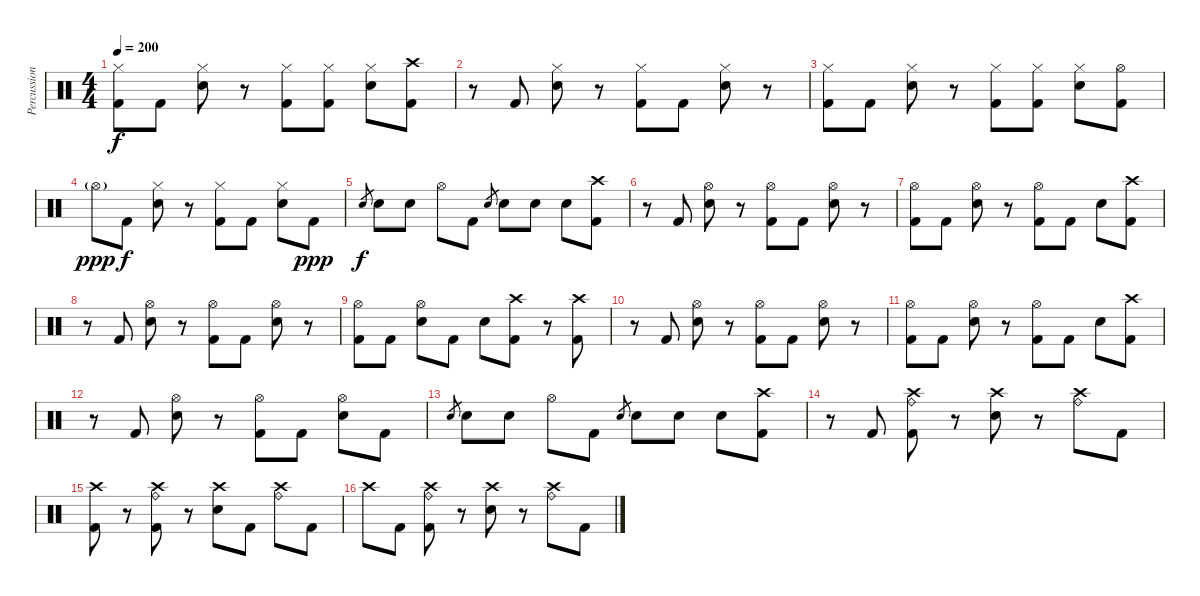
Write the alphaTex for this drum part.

\track ("Percussion" "Percussion") {instrument percussion}
\staff {score}
\articulation defaults
\ts (4 4)
\tempo 200
\clef neutral
\ks c
("Hi-Hat (closed)" "Kick (hit) 2").8{dy f} "Kick (hit) 2".8 ("Hi-Hat (closed)" "Electric Snare (hit)").8 r.8 ("Hi-Hat (closed)" "Kick (hit) 2").8 ("Hi-Hat (closed)" "Kick (hit) 2").8 ("Hi-Hat (closed)" "Electric Snare (hit)").8 ("Crash high (hit)" "Kick (hit) 2").8 |
r.8 "Kick (hit) 2".8 ("Hi-Hat (closed)" "Electric Snare (hit)").8 r.8 ("Hi-Hat (closed)" "Kick (hit) 2").8 "Kick (hit) 2".8 ("Hi-Hat (closed)" "Electric Snare (hit)").8 r.8 |
("Hi-Hat (closed)" "Kick (hit) 2").8 "Kick (hit) 2".8 ("Hi-Hat (closed)" "Electric Snare (hit)").8 r.8 ("Hi-Hat (closed)" "Kick (hit) 2").8 ("Hi-Hat (closed)" "Kick (hit) 2").8 ("Hi-Hat (closed)" "Electric Snare (hit)").8 ("Hi-Hat (open)" "Kick (hit) 2").8 |
"Hi-Hat (open)"{g}.8{dy ppp volume 0} "Kick (hit) 2".8{dy f volume 13} ("Hi-Hat (closed)" "Electric Snare (hit)").8 r.8 ("Hi-Hat (closed)" "Kick (hit) 2").8 "Kick (hit) 2".8 ("Hi-Hat (closed)" "Electric Snare (hit)").8 "Kick (hit) 2".8{dy ppp} |
"Electric Snare (hit)".8{gr dy f} "Electric Snare (hit)".8 "Electric Snare (hit)".8 "Hi-Hat (open)".8 "Kick (hit) 2".8 "Electric Snare (hit)".8{gr} "Electric Snare (hit)".8 "Electric Snare (hit)".8 "Electric Snare (hit)".8 ("Crash high (hit)" "Kick (hit) 2").8 |
r.8 "Kick (hit) 2".8 ("Hi-Hat (open)" "Electric Snare (hit)").8 r.8 ("Hi-Hat (open)" "Kick (hit) 2").8 "Kick (hit) 2".8 ("Hi-Hat (open)" "Electric Snare (hit)").8 r.8 |
("Hi-Hat (open)" "Kick (hit) 2").8 "Kick (hit) 2".8 ("Hi-Hat (open)" "Electric Snare (hit)").8 r.8 ("Hi-Hat (open)" "Kick (hit) 2").8 "Kick (hit) 2".8 "Electric Snare (hit)".8 ("Crash high (hit)" "Kick (hit) 2").8 |
r.8 "Kick (hit) 2".8 ("Hi-Hat (open)" "Electric Snare (hit)").8 r.8 ("Hi-Hat (open)" "Kick (hit) 2").8 "Kick (hit) 2".8 ("Hi-Hat (open)" "Electric Snare (hit)").8 r.8 |
("Hi-Hat (open)" "Kick (hit) 2").8 "Kick (hit) 2".8 ("Hi-Hat (open)" "Electric Snare (hit)").8 "Kick (hit) 2".8 "Electric Snare (hit)".8 ("Crash high (hit)" "Kick (hit) 2").8 r.8 ("Crash high (hit)" "Kick (hit) 2").8 |
r.8 "Kick (hit) 2".8 ("Hi-Hat (open)" "Electric Snare (hit)").8 r.8 ("Hi-Hat (open)" "Kick (hit) 2").8 "Kick (hit) 2".8 ("Hi-Hat (open)" "Electric Snare (hit)").8 r.8 |
("Hi-Hat (open)" "Kick (hit) 2").8 "Kick (hit) 2".8 ("Hi-Hat (open)" "Electric Snare (hit)").8 r.8 ("Hi-Hat (open)" "Kick (hit) 2").8 "Kick (hit) 2".8 "Electric Snare (hit)".8 ("Crash high (hit)" "Kick (hit) 2").8 |
r.8 "Kick (hit) 2".8 ("Hi-Hat (open)" "Electric Snare (hit)").8 r.8 ("Hi-Hat (open)" "Kick (hit) 2").8 "Kick (hit) 2".8 ("Hi-Hat (open)" "Electric Snare (hit)").8 "Kick (hit) 2".8 |
"Electric Snare (hit)".8{gr} "Electric Snare (hit)".8 "Electric Snare (hit)".8 "Hi-Hat (open)".8 "Kick (hit) 2".8 "Electric Snare (hit)".8{gr} "Electric Snare (hit)".8 "Electric Snare (hit)".8 "Electric Snare (hit)".8 ("Crash high (hit)" "Kick (hit) 2").8 |
r.8 "Kick (hit) 2".8 ("Crash high (hit)" "Ride (bell)" "Kick (hit) 2").8 r.8 ("Crash high (hit)" "Electric Snare (hit)").8 r.8 ("Crash high (hit)" "Ride (bell)").8 "Kick (hit) 2".8 |
("Crash high (hit)" "Kick (hit) 2").8 r.8 ("Crash high (hit)" "Ride (bell)" "Kick (hit) 2").8 r.8 ("Crash high (hit)" "Electric Snare (hit)").8 "Kick (hit) 2".8 ("Crash high (hit)" "Ride (bell)").8 "Kick (hit) 2".8 |
"Crash high (hit)".8 "Kick (hit) 2".8 ("Crash high (hit)" "Ride (bell)" "Kick (hit) 2").8 r.8 ("Crash high (hit)" "Electric Snare (hit)").8 r.8 ("Crash high (hit)" "Ride (bell)").8 "Kick (hit) 2".8
